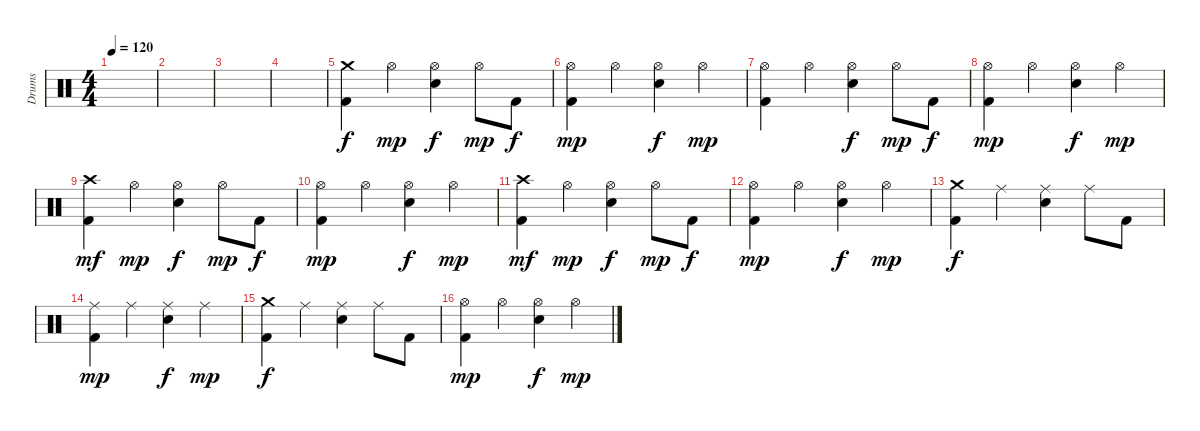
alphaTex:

\track ("Drums" "Drums") {instrument percussion}
\staff {score}
\articulation defaults
\ts (4 4)
\tempo 120
\clef neutral
\ks c
|
|
|
|
("Crash medium (hit)" "Kick (hit) 2").4 "Hi-Hat (open)".4{dy mp} ("Hi-Hat (open)" "Snare (hit) 2").4{dy f} "Hi-Hat (open)".8{dy mp} "Kick (hit) 2".8{dy f} |
("Hi-Hat (open)" "Kick (hit) 2").4{dy mp} "Hi-Hat (open)".4 ("Hi-Hat (open)" "Snare (hit) 2").4{dy f} "Hi-Hat (open)".4{dy mp} |
("Hi-Hat (open)" "Kick (hit) 2").4 "Hi-Hat (open)".4 ("Hi-Hat (open)" "Snare (hit) 2").4{dy f} "Hi-Hat (open)".8{dy mp} "Kick (hit) 2".8{dy f} |
("Hi-Hat (open)" "Kick (hit) 2").4{dy mp} "Hi-Hat (open)".4 ("Hi-Hat (open)" "Snare (hit) 2").4{dy f} "Hi-Hat (open)".4{dy mp} |
("Crash high (hit)" "Kick (hit) 2").4{dy mf} "Hi-Hat (open)".4{dy mp} ("Hi-Hat (open)" "Snare (hit) 2").4{dy f} "Hi-Hat (open)".8{dy mp} "Kick (hit) 2".8{dy f} |
("Hi-Hat (open)" "Kick (hit) 2").4{dy mp} "Hi-Hat (open)".4 ("Hi-Hat (open)" "Snare (hit) 2").4{dy f} "Hi-Hat (open)".4{dy mp} |
("Crash high (hit)" "Kick (hit) 2").4{dy mf} "Hi-Hat (open)".4{dy mp} ("Hi-Hat (open)" "Snare (hit) 2").4{dy f} "Hi-Hat (open)".8{dy mp} "Kick (hit) 2".8{dy f} |
("Hi-Hat (open)" "Kick (hit) 2").4{dy mp} "Hi-Hat (open)".4 ("Hi-Hat (open)" "Snare (hit) 2").4{dy f} "Hi-Hat (open)".4{dy mp} |
("Crash medium (hit)" "Kick (hit) 2").4{dy f} "Ride (middle)".4 ("Ride (middle)" "Snare (hit) 2").4 "Ride (middle)".8 "Kick (hit) 2".8 |
("Ride (middle)" "Kick (hit) 2").4{dy mp} "Ride (middle)".4 ("Ride (middle)" "Snare (hit) 2").4{dy f} "Ride (middle)".4{dy mp} |
("Crash medium (hit)" "Kick (hit) 2").4{dy f} "Ride (middle)".4 ("Ride (middle)" "Snare (hit) 2").4 "Ride (middle)".8 "Kick (hit) 2".8 |
("Hi-Hat (open)" "Kick (hit) 2").4{dy mp} "Hi-Hat (open)".4 ("Hi-Hat (open)" "Snare (hit) 2").4{dy f} "Hi-Hat (open)".4{dy mp}
